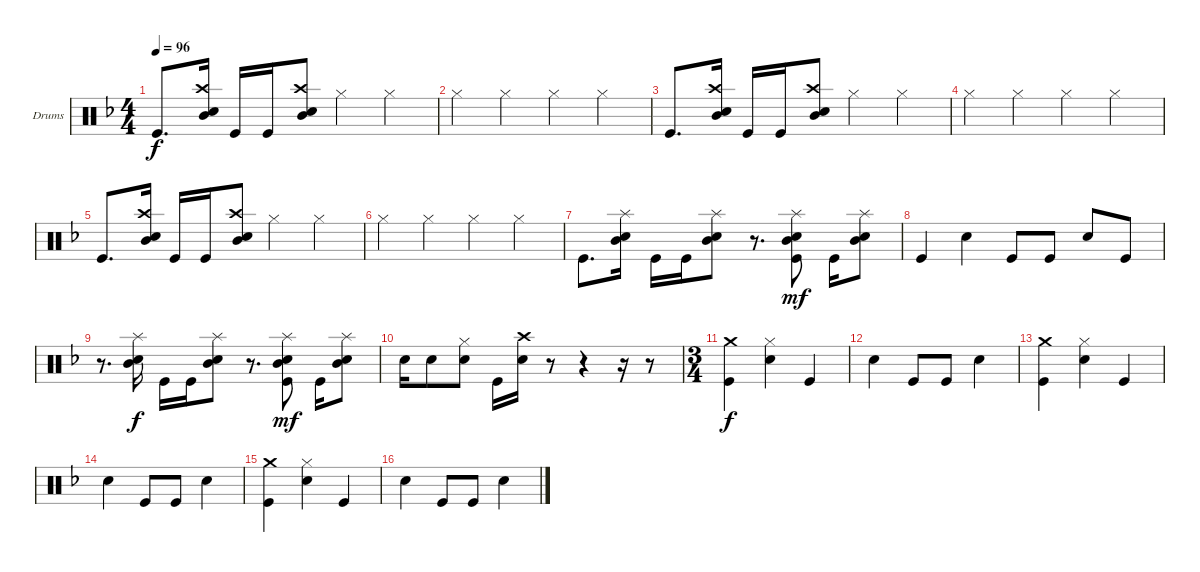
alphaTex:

\defaultSystemsLayout 4
\bracketExtendMode groupsimilarinstruments
\firstSystemTrackNameOrientation horizontal
\otherSystemsTrackNameOrientation horizontal
\track ("Drumkit" "Drums") {instrument percussion}
\staff {score}
\articulation defaults
\ts (4 4)
\tempo 96
\clef neutral
\scale
0.5
\ks dminor "Kick (hit)".8{d dy f}
("Snare (hit) 2" "Crash high (hit)" "Mid Tom (hit)").16 "Kick (hit)".16 "Kick (hit)".16 ("Snare (hit) 2" "Crash high (hit)" "Mid Tom (hit)").8 "Hi-Hat (closed)".4 "Hi-Hat (closed)".4 |
\scale
0.25 "Hi-Hat (closed)".4 "Hi-Hat (closed)".4 "Hi-Hat (closed)".4 "Hi-Hat (closed)".4 |
\scale
0.25 "Kick (hit)".8{d} ("Snare (hit) 2" "Crash high (hit)" "Mid Tom (hit)").16 "Kick (hit)".16 "Kick (hit)".16 ("Snare (hit) 2" "Crash high (hit)" "Mid Tom (hit)").8 "Hi-Hat (closed)".4 "Hi-Hat (closed)".4 |
\scale
0.333333 "Hi-Hat (closed)".4 "Hi-Hat (closed)".4 "Hi-Hat (closed)".4 "Hi-Hat (closed)".4 |
\scale
0.333333 "Kick (hit)".8{d} ("Snare (hit) 2" "Crash high (hit)" "Mid Tom (hit)").16 "Kick (hit)".16 "Kick (hit)".16 ("Snare (hit) 2" "Crash high (hit)" "Mid Tom (hit)").8 "Hi-Hat (closed)".4 "Hi-Hat (closed)".4 |
\scale
0.333333 "Hi-Hat (closed)".4 "Hi-Hat (closed)".4 "Hi-Hat (closed)".4 "Hi-Hat (closed)".4 |
\scale
0.333333 "Kick (hit)".8{d} ("Mid Tom (hit)" "Snare (hit) 2" "Splash (hit)").16 "Kick (hit)".16 "Kick (hit)".16 ("Mid Tom (hit)" "Snare (hit) 2" "Splash (hit)").8 r.8{d} ("Splash (hit)" "Snare (hit) 2" "Mid Tom (hit)" "Kick (hit)").8{dy mf} "Kick (hit)".16 ("Mid Tom (hit)" "Snare (hit) 2" "Splash (hit)").8 |
\scale
0.333333 "Kick (hit)".4 "Snare (hit) 2".4 "Kick (hit)".8 "Kick (hit)".8 "Snare (hit) 2".8 "Kick (hit)".8 |
\scale
0.333333 r.8{d} ("Mid Tom (hit)" "Snare (hit) 2" "Splash (hit)").16{dy f} "Kick (hit)".16 "Kick (hit)".16 ("Mid Tom (hit)" "Snare (hit) 2" "Splash (hit)").8 r.8{d} ("Splash (hit)" "Snare (hit) 2" "Mid Tom (hit)" "Kick (hit)").8{dy mf} "Kick (hit)".16 ("Mid Tom (hit)" "Snare (hit) 2" "Splash (hit)").8 |
\scale
0.333333 "Snare (hit) 2".16 "Snare (hit) 2".8 ("Snare (hit) 2" "Hi-Hat (closed)").8 "Kick (hit)".16 ("Snare (hit) 2" "Crash high (hit)").16 r.8 r.4 r.16 r.8 |
\ts (3 4)
\scale
0.333333 ("Kick (hit)" "Crash medium (hit)").4{dy f} ("Snare (hit) 2" "Hi-Hat (closed)").4 "Kick (hit)".4 |
\scale
0.333333 "Snare (hit) 2".4 "Kick (hit)".8 "Kick (hit)".8 "Snare (hit) 2".4 |
\scale
0.333333 ("Kick (hit)" "Crash medium (hit)").4 ("Snare (hit) 2" "Hi-Hat (closed)").4 "Kick (hit)".4 |
\scale
0.333333 "Snare (hit) 2".4 "Kick (hit)".8 "Kick (hit)".8 "Snare (hit) 2".4 |
\scale
0.333333 ("Kick (hit)" "Crash medium (hit)").4 ("Snare (hit) 2" "Hi-Hat (closed)").4 "Kick (hit)".4 |
\scale
0.333333 "Snare (hit) 2".4 "Kick (hit)".8 "Kick (hit)".8 "Snare (hit) 2".4
